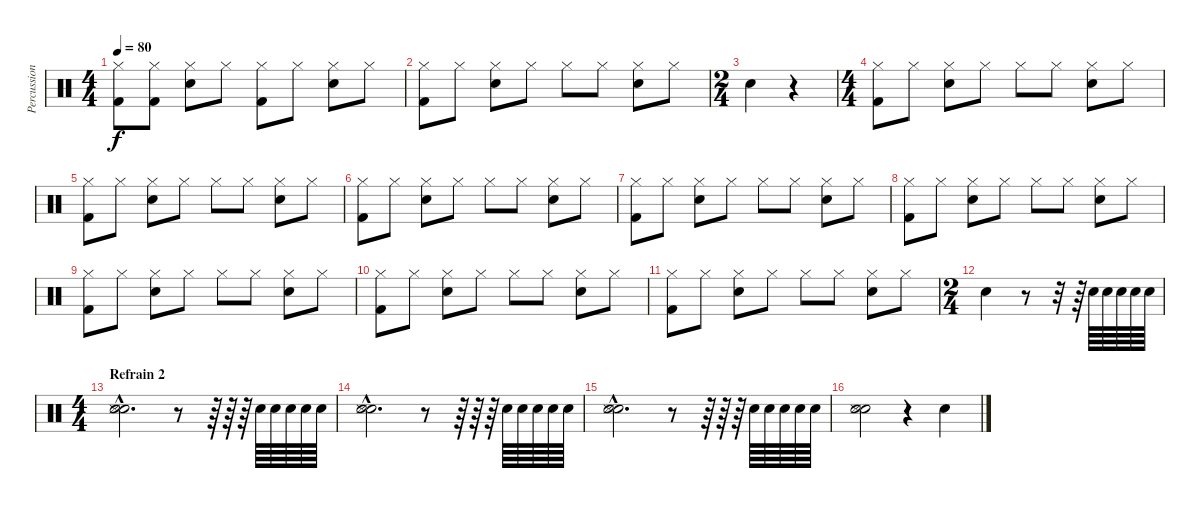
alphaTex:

\track ("Percussions" "Percussion") {instrument percussion}
\staff {score}
\articulation defaults
\ts (4 4)
\tempo 80
\clef neutral
\ks c
("Hi-Hat (closed)" "Kick (hit) 2").8{dy f} ("Hi-Hat (closed)" "Kick (hit) 2").8 ("Hi-Hat (closed)" "Electric Snare (hit)").8 "Hi-Hat (closed)".8 ("Hi-Hat (closed)" "Kick (hit) 2").8 "Hi-Hat (closed)".8 ("Hi-Hat (closed)" "Electric Snare (hit)").8 "Hi-Hat (closed)".8 |
("Hi-Hat (closed)" "Kick (hit) 2").8 "Hi-Hat (closed)".8 ("Hi-Hat (closed)" "Electric Snare (hit)").8 "Hi-Hat (closed)".8 "Hi-Hat (closed)".8 "Hi-Hat (closed)".8 ("Hi-Hat (closed)" "Electric Snare (hit)").8 "Hi-Hat (closed)".8 |
\ts (2 4)
"Electric Snare (hit)".4 r.4 |
\ts (4 4)
("Hi-Hat (closed)" "Kick (hit) 2").8 "Hi-Hat (closed)".8 ("Hi-Hat (closed)" "Electric Snare (hit)").8 "Hi-Hat (closed)".8 "Hi-Hat (closed)".8 "Hi-Hat (closed)".8 ("Hi-Hat (closed)" "Electric Snare (hit)").8 "Hi-Hat (closed)".8 |
("Hi-Hat (closed)" "Kick (hit) 2").8 "Hi-Hat (closed)".8 ("Hi-Hat (closed)" "Electric Snare (hit)").8 "Hi-Hat (closed)".8 "Hi-Hat (closed)".8 "Hi-Hat (closed)".8 ("Hi-Hat (closed)" "Electric Snare (hit)").8 "Hi-Hat (closed)".8 |
("Hi-Hat (closed)" "Kick (hit) 2").8 "Hi-Hat (closed)".8 ("Hi-Hat (closed)" "Electric Snare (hit)").8 "Hi-Hat (closed)".8 "Hi-Hat (closed)".8 "Hi-Hat (closed)".8 ("Hi-Hat (closed)" "Electric Snare (hit)").8 "Hi-Hat (closed)".8 |
("Hi-Hat (closed)" "Kick (hit) 2").8 "Hi-Hat (closed)".8 ("Hi-Hat (closed)" "Electric Snare (hit)").8 "Hi-Hat (closed)".8 "Hi-Hat (closed)".8 "Hi-Hat (closed)".8 ("Hi-Hat (closed)" "Electric Snare (hit)").8 "Hi-Hat (closed)".8 |
("Hi-Hat (closed)" "Kick (hit) 2").8 "Hi-Hat (closed)".8 ("Hi-Hat (closed)" "Electric Snare (hit)").8 "Hi-Hat (closed)".8 "Hi-Hat (closed)".8 "Hi-Hat (closed)".8 ("Hi-Hat (closed)" "Electric Snare (hit)").8 "Hi-Hat (closed)".8 |
("Hi-Hat (closed)" "Kick (hit) 2").8 "Hi-Hat (closed)".8 ("Hi-Hat (closed)" "Electric Snare (hit)").8 "Hi-Hat (closed)".8 "Hi-Hat (closed)".8 "Hi-Hat (closed)".8 ("Hi-Hat (closed)" "Electric Snare (hit)").8 "Hi-Hat (closed)".8 |
("Hi-Hat (closed)" "Kick (hit) 2").8 "Hi-Hat (closed)".8 ("Hi-Hat (closed)" "Electric Snare (hit)").8 "Hi-Hat (closed)".8 "Hi-Hat (closed)".8 "Hi-Hat (closed)".8 ("Hi-Hat (closed)" "Electric Snare (hit)").8 "Hi-Hat (closed)".8 |
("Hi-Hat (closed)" "Kick (hit) 2").8 "Hi-Hat (closed)".8 ("Hi-Hat (closed)" "Electric Snare (hit)").8 "Hi-Hat (closed)".8 "Hi-Hat (closed)".8 "Hi-Hat (closed)".8 ("Hi-Hat (closed)" "Electric Snare (hit)").8 "Hi-Hat (closed)".8 |
\ts (2 4)
"Electric Snare (hit)".4 r.8 r.32 r.64 "Electric Snare (hit)".64 "Electric Snare (hit)".64 "Electric Snare (hit)".64 "Electric Snare (hit)".64 "Electric Snare (hit)".64 |
\ts (4 4)
\section ("" "Refrain 2")
("Electric Snare (hit)"{hac} "Snare (side stick) 3"{hac} "Snare (hit) 2"{hac}).2{d} r.8 r.64 r.64 r.64 "Electric Snare (hit)".64 "Electric Snare (hit)".64 "Electric Snare (hit)".64 "Electric Snare (hit)".64 "Electric Snare (hit)".64 |
("Electric Snare (hit)"{hac} "Snare (side stick) 3"{hac} "Snare (hit) 2"{hac}).2{d} r.8 r.64 r.64 r.64 "Electric Snare (hit)".64 "Electric Snare (hit)".64 "Electric Snare (hit)".64 "Electric Snare (hit)".64 "Electric Snare (hit)".64 |
("Electric Snare (hit)"{hac} "Snare (side stick) 3"{hac} "Snare (hit) 2"{hac}).2{d} r.8 r.64 r.64 r.64 "Electric Snare (hit)".64 "Electric Snare (hit)".64 "Electric Snare (hit)".64 "Electric Snare (hit)".64 "Electric Snare (hit)".64 |
("Electric Snare (hit)" "Snare (side stick) 3" "Snare (hit) 2").2 r.4 "Electric Snare (hit)".4
